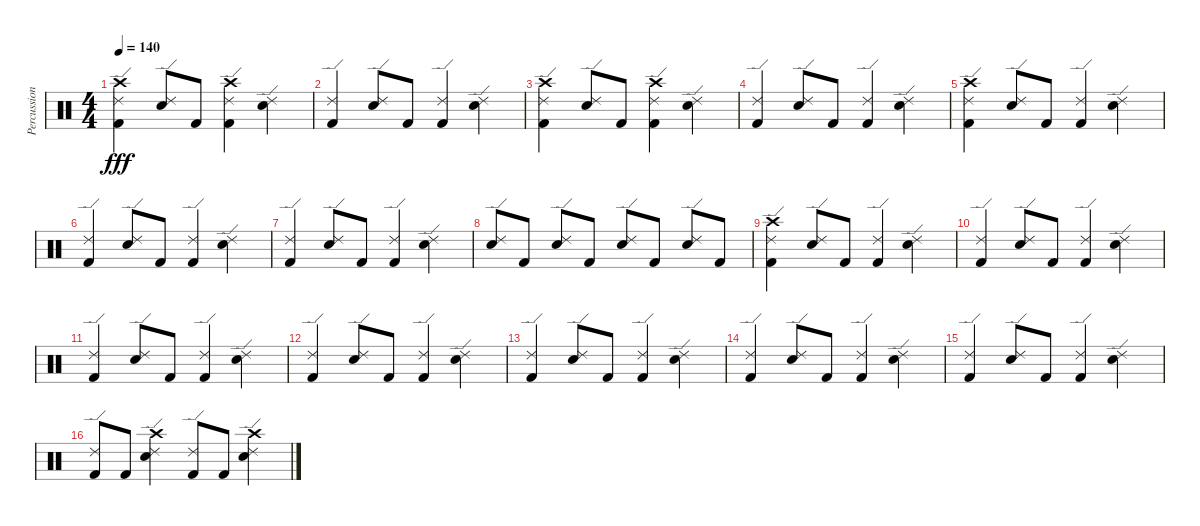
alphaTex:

\track ("Percussion" "Percussion") {instrument percussion}
\staff {score}
\articulation defaults
\ts (4 4)
\tempo 140
\clef neutral
\ks c
("Crash high (hit)" "Ride (edge) 2" "Kick (hit) 2").4{dy fff} ("Ride (edge) 2" "Electric Snare (hit)").8 "Kick (hit) 2".8 ("Crash high (hit)" "Ride (edge) 2" "Kick (hit) 2").4 ("Ride (edge) 2" "Electric Snare (hit)").4 |
("Ride (edge) 2" "Kick (hit) 2").4 ("Ride (edge) 2" "Electric Snare (hit)").8 "Kick (hit) 2".8 ("Ride (edge) 2" "Kick (hit) 2").4 ("Ride (edge) 2" "Electric Snare (hit)").4 |
("Crash high (hit)" "Ride (edge) 2" "Kick (hit) 2").4 ("Ride (edge) 2" "Electric Snare (hit)").8 "Kick (hit) 2".8 ("Crash high (hit)" "Ride (edge) 2" "Kick (hit) 2").4 ("Ride (edge) 2" "Electric Snare (hit)").4 |
("Ride (edge) 2" "Kick (hit) 2").4 ("Ride (edge) 2" "Electric Snare (hit)").8 "Kick (hit) 2".8 ("Ride (edge) 2" "Kick (hit) 2").4 ("Ride (edge) 2" "Electric Snare (hit)").4 |
("Crash high (hit)" "Ride (edge) 2" "Kick (hit) 2").4 ("Ride (edge) 2" "Electric Snare (hit)").8 "Kick (hit) 2".8 ("Ride (edge) 2" "Kick (hit) 2").4 ("Ride (edge) 2" "Electric Snare (hit)").4 |
("Ride (edge) 2" "Kick (hit) 2").4 ("Ride (edge) 2" "Electric Snare (hit)").8 "Kick (hit) 2".8 ("Ride (edge) 2" "Kick (hit) 2").4 ("Ride (edge) 2" "Electric Snare (hit)").4 |
("Ride (edge) 2" "Kick (hit) 2").4 ("Ride (edge) 2" "Electric Snare (hit)").8 "Kick (hit) 2".8 ("Ride (edge) 2" "Kick (hit) 2").4 ("Ride (edge) 2" "Electric Snare (hit)").4 |
("Ride (edge) 2" "Electric Snare (hit)").8 "Kick (hit) 2".8 ("Ride (edge) 2" "Electric Snare (hit)").8 "Kick (hit) 2".8 ("Ride (edge) 2" "Electric Snare (hit)").8 "Kick (hit) 2".8 ("Ride (edge) 2" "Electric Snare (hit)").8 "Kick (hit) 2".8 |
("Crash high (hit)" "Ride (edge) 2" "Kick (hit) 2").4 ("Ride (edge) 2" "Electric Snare (hit)").8 "Kick (hit) 2".8 ("Ride (edge) 2" "Kick (hit) 2").4 ("Ride (edge) 2" "Electric Snare (hit)").4 |
("Ride (edge) 2" "Kick (hit) 2").4 ("Ride (edge) 2" "Electric Snare (hit)").8 "Kick (hit) 2".8 ("Ride (edge) 2" "Kick (hit) 2").4 ("Ride (edge) 2" "Electric Snare (hit)").4 |
("Ride (edge) 2" "Kick (hit) 2").4 ("Ride (edge) 2" "Electric Snare (hit)").8 "Kick (hit) 2".8 ("Ride (edge) 2" "Kick (hit) 2").4 ("Ride (edge) 2" "Electric Snare (hit)").4 |
("Ride (edge) 2" "Kick (hit) 2").4 ("Ride (edge) 2" "Electric Snare (hit)").8 "Kick (hit) 2".8 ("Ride (edge) 2" "Kick (hit) 2").4 ("Ride (edge) 2" "Electric Snare (hit)").4 |
("Ride (edge) 2" "Kick (hit) 2").4 ("Ride (edge) 2" "Electric Snare (hit)").8 "Kick (hit) 2".8 ("Ride (edge) 2" "Kick (hit) 2").4 ("Ride (edge) 2" "Electric Snare (hit)").4 |
("Ride (edge) 2" "Kick (hit) 2").4 ("Ride (edge) 2" "Electric Snare (hit)").8 "Kick (hit) 2".8 ("Ride (edge) 2" "Kick (hit) 2").4 ("Ride (edge) 2" "Electric Snare (hit)").4 |
("Ride (edge) 2" "Kick (hit) 2").4 ("Ride (edge) 2" "Electric Snare (hit)").8 "Kick (hit) 2".8 ("Ride (edge) 2" "Kick (hit) 2").4 ("Ride (edge) 2" "Electric Snare (hit)").4 |
("Ride (edge) 2" "Kick (hit) 2").8 "Kick (hit) 2".8 ("Crash high (hit)" "Ride (edge) 2" "Electric Snare (hit)").4 ("Ride (edge) 2" "Kick (hit) 2").8 "Kick (hit) 2".8 ("Crash high (hit)" "Ride (edge) 2" "Electric Snare (hit)").4
